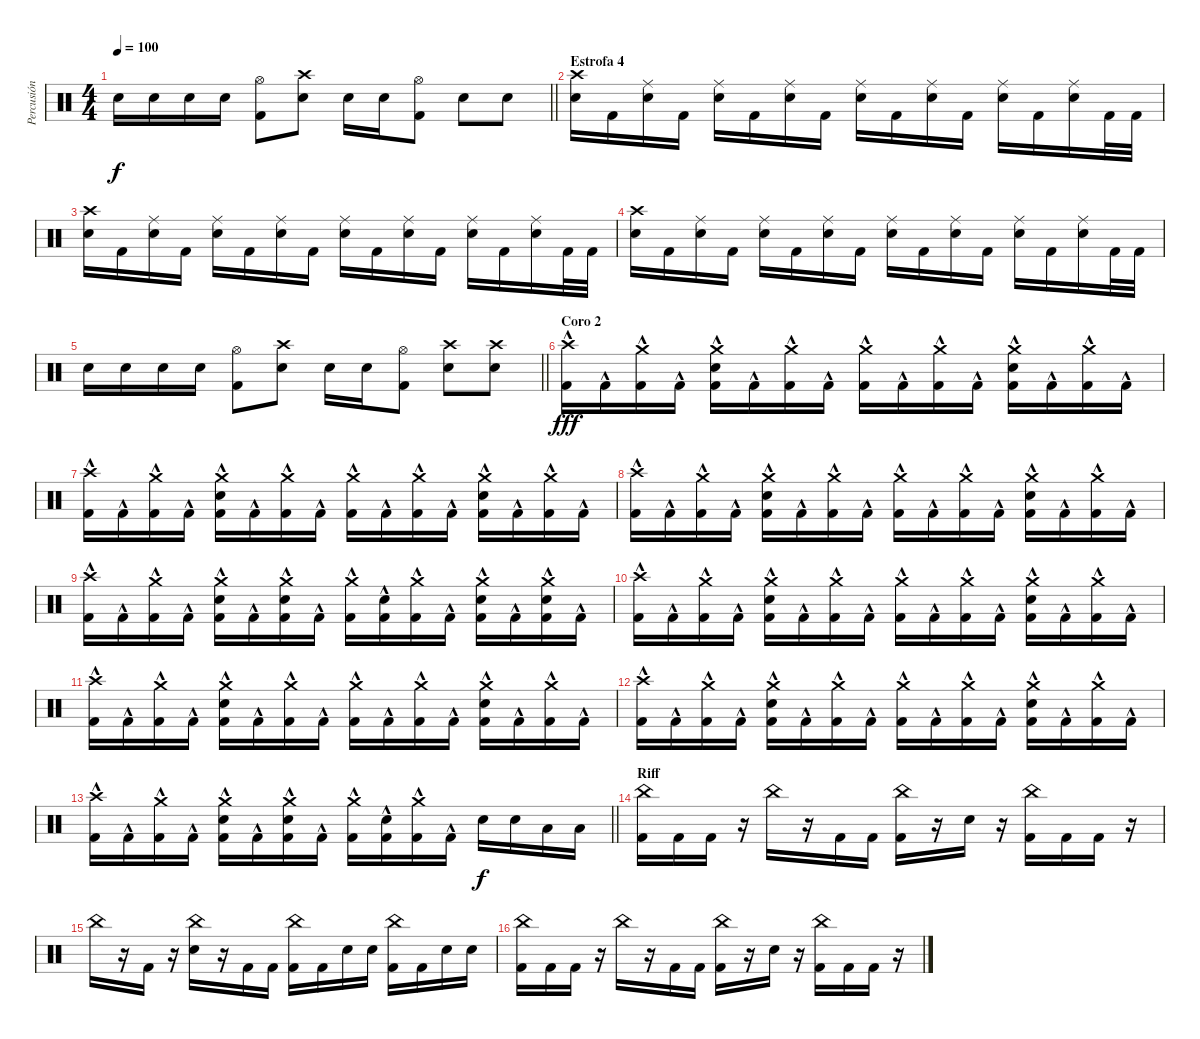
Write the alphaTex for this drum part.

\track ("Percusión" "Percusión") {instrument percussion}
\staff {score}
\articulation defaults
\ts (4 4)
\tempo 100
\clef neutral
\barLineRight lightlight
\ks c "Snare (hit) 2".16{dy f} "Snare (hit) 2".16 "Snare (hit) 2".16 "Snare (hit) 2".16
("Hi-Hat (open)" "Kick (hit) 2").8 ("Crash high (hit)" "Snare (hit) 2").8 "Snare (hit) 2".16 "Snare (hit) 2".16 ("Hi-Hat (open)" "Kick (hit) 2").8 "Snare (hit) 2".8 "Snare (hit) 2".8 |
\section ("" "Estrofa 4")
("Crash high (hit)" "Snare (hit) 2").16 "Kick (hit) 2".16 ("Ride (middle)" "Snare (hit) 2").16 "Kick (hit) 2".16 ("Ride (middle)" "Snare (hit) 2").16 "Kick (hit) 2".16 ("Ride (middle)" "Snare (hit) 2").16 "Kick (hit) 2".16 ("Ride (middle)" "Snare (hit) 2").16 "Kick (hit) 2".16 ("Ride (middle)" "Snare (hit) 2").16 "Kick (hit) 2".16 ("Ride (middle)" "Snare (hit) 2").16 "Kick (hit) 2".16 ("Ride (middle)" "Snare (hit) 2").16 "Kick (hit) 2".32 "Kick (hit) 2".32 |
("Crash high (hit)" "Snare (hit) 2").16 "Kick (hit) 2".16 ("Ride (middle)" "Snare (hit) 2").16 "Kick (hit) 2".16 ("Ride (middle)" "Snare (hit) 2").16 "Kick (hit) 2".16 ("Ride (middle)" "Snare (hit) 2").16 "Kick (hit) 2".16 ("Ride (middle)" "Snare (hit) 2").16 "Kick (hit) 2".16 ("Ride (middle)" "Snare (hit) 2").16 "Kick (hit) 2".16 ("Ride (middle)" "Snare (hit) 2").16 "Kick (hit) 2".16 ("Ride (middle)" "Snare (hit) 2").16 "Kick (hit) 2".32 "Kick (hit) 2".32 |
("Crash high (hit)" "Snare (hit) 2").16 "Kick (hit) 2".16 ("Ride (middle)" "Snare (hit) 2").16 "Kick (hit) 2".16 ("Ride (middle)" "Snare (hit) 2").16 "Kick (hit) 2".16 ("Ride (middle)" "Snare (hit) 2").16 "Kick (hit) 2".16 ("Ride (middle)" "Snare (hit) 2").16 "Kick (hit) 2".16 ("Ride (middle)" "Snare (hit) 2").16 "Kick (hit) 2".16 ("Ride (middle)" "Snare (hit) 2").16 "Kick (hit) 2".16 ("Ride (middle)" "Snare (hit) 2").16 "Kick (hit) 2".32 "Kick (hit) 2".32 |
\barLineRight lightlight "Snare (hit) 2".16 "Snare (hit) 2".16 "Snare (hit) 2".16 "Snare (hit) 2".16
("Hi-Hat (open)" "Kick (hit) 2").8 ("Crash high (hit)" "Snare (hit) 2").8 "Snare (hit) 2".16 "Snare (hit) 2".16 ("Hi-Hat (open)" "Kick (hit) 2").8 ("Crash high (hit)" "Snare (hit) 2").8 ("Crash high (hit)" "Snare (hit) 2").8 |
\section ("" "Coro 2")
("Crash high (hit)" "Kick (hit) 2"{hac}).16{dy fff} "Kick (hit) 2"{hac}.16 ("Crash medium (hit)" "Kick (hit) 2"{hac}).16 "Kick (hit) 2"{hac}.16 ("Crash medium (hit)" "Snare (hit) 2"{hac} "Kick (hit) 2"{hac}).16 "Kick (hit) 2"{hac}.16 ("Crash medium (hit)" "Kick (hit) 2"{hac}).16 "Kick (hit) 2"{hac}.16 ("Crash medium (hit)" "Kick (hit) 2"{hac}).16 "Kick (hit) 2"{hac}.16 ("Crash medium (hit)" "Kick (hit) 2"{hac}).16 "Kick (hit) 2"{hac}.16 ("Crash medium (hit)" "Snare (hit) 2"{hac} "Kick (hit) 2"{hac}).16 "Kick (hit) 2"{hac}.16 ("Crash medium (hit)" "Kick (hit) 2"{hac}).16 "Kick (hit) 2"{hac}.16 |
("Crash high (hit)" "Kick (hit) 2"{hac}).16 "Kick (hit) 2"{hac}.16 ("Crash medium (hit)" "Kick (hit) 2"{hac}).16 "Kick (hit) 2"{hac}.16 ("Crash medium (hit)" "Snare (hit) 2"{hac} "Kick (hit) 2"{hac}).16 "Kick (hit) 2"{hac}.16 ("Crash medium (hit)" "Kick (hit) 2"{hac}).16 "Kick (hit) 2"{hac}.16 ("Crash medium (hit)" "Kick (hit) 2"{hac}).16 "Kick (hit) 2"{hac}.16 ("Crash medium (hit)" "Kick (hit) 2"{hac}).16 "Kick (hit) 2"{hac}.16 ("Crash medium (hit)" "Snare (hit) 2"{hac} "Kick (hit) 2"{hac}).16 "Kick (hit) 2"{hac}.16 ("Crash medium (hit)" "Kick (hit) 2"{hac}).16 "Kick (hit) 2"{hac}.16 |
("Crash high (hit)" "Kick (hit) 2"{hac}).16 "Kick (hit) 2"{hac}.16 ("Crash medium (hit)" "Kick (hit) 2"{hac}).16 "Kick (hit) 2"{hac}.16 ("Crash medium (hit)" "Snare (hit) 2"{hac} "Kick (hit) 2"{hac}).16 "Kick (hit) 2"{hac}.16 ("Crash medium (hit)" "Kick (hit) 2"{hac}).16 "Kick (hit) 2"{hac}.16 ("Crash medium (hit)" "Kick (hit) 2"{hac}).16 "Kick (hit) 2"{hac}.16 ("Crash medium (hit)" "Kick (hit) 2"{hac}).16 "Kick (hit) 2"{hac}.16 ("Crash medium (hit)" "Snare (hit) 2"{hac} "Kick (hit) 2"{hac}).16 "Kick (hit) 2"{hac}.16 ("Crash medium (hit)" "Kick (hit) 2"{hac}).16 "Kick (hit) 2"{hac}.16 |
("Crash high (hit)" "Kick (hit) 2"{hac}).16 "Kick (hit) 2"{hac}.16 ("Crash medium (hit)" "Kick (hit) 2"{hac}).16 "Kick (hit) 2"{hac}.16 ("Crash medium (hit)" "Snare (hit) 2"{hac} "Kick (hit) 2"{hac}).16 "Kick (hit) 2"{hac}.16 ("Crash medium (hit)" "Snare (hit) 2"{hac} "Kick (hit) 2"{hac}).16 "Kick (hit) 2"{hac}.16 ("Crash medium (hit)" "Kick (hit) 2"{hac}).16 ("Snare (hit) 2"{hac} "Kick (hit) 2"{hac}).16 ("Crash medium (hit)" "Kick (hit) 2"{hac}).16 "Kick (hit) 2"{hac}.16 ("Crash medium (hit)" "Snare (hit) 2"{hac} "Kick (hit) 2"{hac}).16 "Kick (hit) 2"{hac}.16 ("Crash medium (hit)" "Snare (hit) 2"{hac} "Kick (hit) 2"{hac}).16 "Kick (hit) 2"{hac}.16 |
("Crash high (hit)" "Kick (hit) 2"{hac}).16 "Kick (hit) 2"{hac}.16 ("Crash medium (hit)" "Kick (hit) 2"{hac}).16 "Kick (hit) 2"{hac}.16 ("Crash medium (hit)" "Snare (hit) 2"{hac} "Kick (hit) 2"{hac}).16 "Kick (hit) 2"{hac}.16 ("Crash medium (hit)" "Kick (hit) 2"{hac}).16 "Kick (hit) 2"{hac}.16 ("Crash medium (hit)" "Kick (hit) 2"{hac}).16 "Kick (hit) 2"{hac}.16 ("Crash medium (hit)" "Kick (hit) 2"{hac}).16 "Kick (hit) 2"{hac}.16 ("Crash medium (hit)" "Snare (hit) 2"{hac} "Kick (hit) 2"{hac}).16 "Kick (hit) 2"{hac}.16 ("Crash medium (hit)" "Kick (hit) 2"{hac}).16 "Kick (hit) 2"{hac}.16 |
("Crash high (hit)" "Kick (hit) 2"{hac}).16 "Kick (hit) 2"{hac}.16 ("Crash medium (hit)" "Kick (hit) 2"{hac}).16 "Kick (hit) 2"{hac}.16 ("Crash medium (hit)" "Snare (hit) 2"{hac} "Kick (hit) 2"{hac}).16 "Kick (hit) 2"{hac}.16 ("Crash medium (hit)" "Kick (hit) 2"{hac}).16 "Kick (hit) 2"{hac}.16 ("Crash medium (hit)" "Kick (hit) 2"{hac}).16 "Kick (hit) 2"{hac}.16 ("Crash medium (hit)" "Kick (hit) 2"{hac}).16 "Kick (hit) 2"{hac}.16 ("Crash medium (hit)" "Snare (hit) 2"{hac} "Kick (hit) 2"{hac}).16 "Kick (hit) 2"{hac}.16 ("Crash medium (hit)" "Kick (hit) 2"{hac}).16 "Kick (hit) 2"{hac}.16 |
("Crash high (hit)" "Kick (hit) 2"{hac}).16 "Kick (hit) 2"{hac}.16 ("Crash medium (hit)" "Kick (hit) 2"{hac}).16 "Kick (hit) 2"{hac}.16 ("Crash medium (hit)" "Snare (hit) 2"{hac} "Kick (hit) 2"{hac}).16 "Kick (hit) 2"{hac}.16 ("Crash medium (hit)" "Kick (hit) 2"{hac}).16 "Kick (hit) 2"{hac}.16 ("Crash medium (hit)" "Kick (hit) 2"{hac}).16 "Kick (hit) 2"{hac}.16 ("Crash medium (hit)" "Kick (hit) 2"{hac}).16 "Kick (hit) 2"{hac}.16 ("Crash medium (hit)" "Snare (hit) 2"{hac} "Kick (hit) 2"{hac}).16 "Kick (hit) 2"{hac}.16 ("Crash medium (hit)" "Kick (hit) 2"{hac}).16 "Kick (hit) 2"{hac}.16 |
\barLineRight lightlight
("Crash high (hit)" "Kick (hit) 2"{hac}).16 "Kick (hit) 2"{hac}.16 ("Crash medium (hit)" "Kick (hit) 2"{hac}).16 "Kick (hit) 2"{hac}.16 ("Crash medium (hit)" "Snare (hit) 2"{hac} "Kick (hit) 2"{hac}).16 "Kick (hit) 2"{hac}.16 ("Crash medium (hit)" "Snare (hit) 2"{hac} "Kick (hit) 2"{hac}).16 "Kick (hit) 2"{hac}.16 ("Crash medium (hit)" "Kick (hit) 2"{hac}).16 ("Snare (hit) 2"{hac} "Kick (hit) 2"{hac}).16 ("Crash medium (hit)" "Kick (hit) 2"{hac}).16 "Kick (hit) 2"{hac}.16 "Snare (hit) 2".16{dy f} "Snare (hit) 2".16 "Low Tom (hit)".16 "Low Tom (hit)".16 |
\section ("" "Riff")
("China (hit)" "Kick (hit) 2").16 "Kick (hit) 2".16 "Kick (hit) 2".16 r.16 "China (hit)".16 r.16 "Kick (hit) 2".16 "Kick (hit) 2".16 ("China (hit)" "Kick (hit) 2").16 r.16 "Snare (hit) 2".16 r.16 ("China (hit)" "Kick (hit) 2").16 "Kick (hit) 2".16 "Kick (hit) 2".16 r.16 |
"China (hit)".16 r.16 "Kick (hit) 2".16 r.16 ("China (hit)" "Snare (hit) 2").16 r.16 "Kick (hit) 2".16 "Kick (hit) 2".16 ("China (hit)" "Kick (hit) 2").16 "Kick (hit) 2".16 "Snare (hit) 2".16 "Snare (hit) 2".16 ("China (hit)" "Kick (hit) 2").16 "Kick (hit) 2".16 "Snare (hit) 2".16 "Snare (hit) 2".16 |
("China (hit)" "Kick (hit) 2").16 "Kick (hit) 2".16 "Kick (hit) 2".16 r.16 "China (hit)".16 r.16 "Kick (hit) 2".16 "Kick (hit) 2".16 ("China (hit)" "Kick (hit) 2").16 r.16 "Snare (hit) 2".16 r.16 ("China (hit)" "Kick (hit) 2").16 "Kick (hit) 2".16 "Kick (hit) 2".16 r.16
